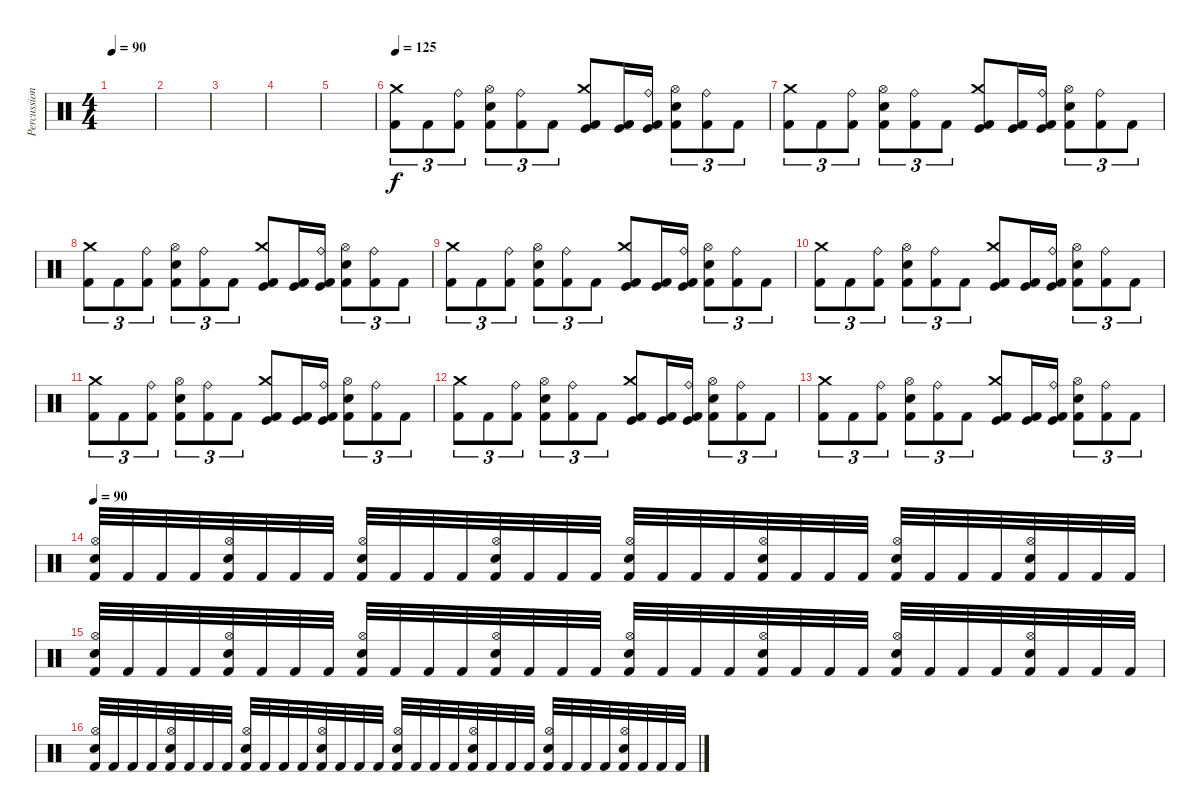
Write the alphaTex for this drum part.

\track ("Percussion" "Percussion") {instrument percussion}
\staff {score}
\articulation defaults
\ts (4 4)
\tempo 90
\clef neutral
\ks c
|
|
|
|
|
\tempo 125
("Kick (hit) 2" "Crash medium (hit)").8{tu (3 2)} "Kick (hit) 2".8{tu (3 2)} ("Kick (hit) 2" "Ride (bell)").8{tu (3 2)} ("Kick (hit) 2" "Snare (hit) 2" "Hi-Hat (open)").8{tu (3 2)} ("Kick (hit) 2" "Ride (bell)").8{tu (3 2)} "Kick (hit) 2".8{tu (3 2)} ("Kick (hit) 2" "Kick (hit)" "Crash medium (hit)").8 ("Kick (hit) 2" "Kick (hit)").16 ("Kick (hit) 2" "Kick (hit)" "Ride (bell)").16 ("Kick (hit) 2" "Snare (hit) 2" "Hi-Hat (open)").8{tu (3 2)} ("Kick (hit) 2" "Ride (bell)").8{tu (3 2)} "Kick (hit) 2".8{tu (3 2)} |
("Kick (hit) 2" "Crash medium (hit)").8{tu (3 2)} "Kick (hit) 2".8{tu (3 2)} ("Kick (hit) 2" "Ride (bell)").8{tu (3 2)} ("Kick (hit) 2" "Snare (hit) 2" "Hi-Hat (open)").8{tu (3 2)} ("Kick (hit) 2" "Ride (bell)").8{tu (3 2)} "Kick (hit) 2".8{tu (3 2)} ("Kick (hit) 2" "Kick (hit)" "Crash medium (hit)").8 ("Kick (hit) 2" "Kick (hit)").16 ("Kick (hit) 2" "Kick (hit)" "Ride (bell)").16 ("Kick (hit) 2" "Snare (hit) 2" "Hi-Hat (open)").8{tu (3 2)} ("Kick (hit) 2" "Ride (bell)").8{tu (3 2)} "Kick (hit) 2".8{tu (3 2)} |
("Kick (hit) 2" "Crash medium (hit)").8{tu (3 2)} "Kick (hit) 2".8{tu (3 2)} ("Kick (hit) 2" "Ride (bell)").8{tu (3 2)} ("Kick (hit) 2" "Snare (hit) 2" "Hi-Hat (open)").8{tu (3 2)} ("Kick (hit) 2" "Ride (bell)").8{tu (3 2)} "Kick (hit) 2".8{tu (3 2)} ("Kick (hit) 2" "Kick (hit)" "Crash medium (hit)").8 ("Kick (hit) 2" "Kick (hit)").16 ("Kick (hit) 2" "Kick (hit)" "Ride (bell)").16 ("Kick (hit) 2" "Snare (hit) 2" "Hi-Hat (open)").8{tu (3 2)} ("Kick (hit) 2" "Ride (bell)").8{tu (3 2)} "Kick (hit) 2".8{tu (3 2)} |
("Kick (hit) 2" "Crash medium (hit)").8{tu (3 2)} "Kick (hit) 2".8{tu (3 2)} ("Kick (hit) 2" "Ride (bell)").8{tu (3 2)} ("Kick (hit) 2" "Snare (hit) 2" "Hi-Hat (open)").8{tu (3 2)} ("Kick (hit) 2" "Ride (bell)").8{tu (3 2)} "Kick (hit) 2".8{tu (3 2)} ("Kick (hit) 2" "Kick (hit)" "Crash medium (hit)").8 ("Kick (hit) 2" "Kick (hit)").16 ("Kick (hit) 2" "Kick (hit)" "Ride (bell)").16 ("Kick (hit) 2" "Snare (hit) 2" "Hi-Hat (open)").8{tu (3 2)} ("Kick (hit) 2" "Ride (bell)").8{tu (3 2)} "Kick (hit) 2".8{tu (3 2)} |
("Kick (hit) 2" "Crash medium (hit)").8{tu (3 2)} "Kick (hit) 2".8{tu (3 2)} ("Kick (hit) 2" "Ride (bell)").8{tu (3 2)} ("Kick (hit) 2" "Snare (hit) 2" "Hi-Hat (open)").8{tu (3 2)} ("Kick (hit) 2" "Ride (bell)").8{tu (3 2)} "Kick (hit) 2".8{tu (3 2)} ("Kick (hit) 2" "Kick (hit)" "Crash medium (hit)").8 ("Kick (hit) 2" "Kick (hit)").16 ("Kick (hit) 2" "Kick (hit)" "Ride (bell)").16 ("Kick (hit) 2" "Snare (hit) 2" "Hi-Hat (open)").8{tu (3 2)} ("Kick (hit) 2" "Ride (bell)").8{tu (3 2)} "Kick (hit) 2".8{tu (3 2)} |
("Kick (hit) 2" "Crash medium (hit)").8{tu (3 2)} "Kick (hit) 2".8{tu (3 2)} ("Kick (hit) 2" "Ride (bell)").8{tu (3 2)} ("Kick (hit) 2" "Snare (hit) 2" "Hi-Hat (open)").8{tu (3 2)} ("Kick (hit) 2" "Ride (bell)").8{tu (3 2)} "Kick (hit) 2".8{tu (3 2)} ("Kick (hit) 2" "Kick (hit)" "Crash medium (hit)").8 ("Kick (hit) 2" "Kick (hit)").16 ("Kick (hit) 2" "Kick (hit)" "Ride (bell)").16 ("Kick (hit) 2" "Snare (hit) 2" "Hi-Hat (open)").8{tu (3 2)} ("Kick (hit) 2" "Ride (bell)").8{tu (3 2)} "Kick (hit) 2".8{tu (3 2)} |
("Kick (hit) 2" "Crash medium (hit)").8{tu (3 2)} "Kick (hit) 2".8{tu (3 2)} ("Kick (hit) 2" "Ride (bell)").8{tu (3 2)} ("Kick (hit) 2" "Snare (hit) 2" "Hi-Hat (open)").8{tu (3 2)} ("Kick (hit) 2" "Ride (bell)").8{tu (3 2)} "Kick (hit) 2".8{tu (3 2)} ("Kick (hit) 2" "Kick (hit)" "Crash medium (hit)").8 ("Kick (hit) 2" "Kick (hit)").16 ("Kick (hit) 2" "Kick (hit)" "Ride (bell)").16 ("Kick (hit) 2" "Snare (hit) 2" "Hi-Hat (open)").8{tu (3 2)} ("Kick (hit) 2" "Ride (bell)").8{tu (3 2)} "Kick (hit) 2".8{tu (3 2)} |
("Kick (hit) 2" "Crash medium (hit)").8{tu (3 2)} "Kick (hit) 2".8{tu (3 2)} ("Kick (hit) 2" "Ride (bell)").8{tu (3 2)} ("Kick (hit) 2" "Snare (hit) 2" "Hi-Hat (open)").8{tu (3 2)} ("Kick (hit) 2" "Ride (bell)").8{tu (3 2)} "Kick (hit) 2".8{tu (3 2)} ("Kick (hit) 2" "Kick (hit)" "Crash medium (hit)").8 ("Kick (hit) 2" "Kick (hit)").16 ("Kick (hit) 2" "Kick (hit)" "Ride (bell)").16 ("Kick (hit) 2" "Snare (hit) 2" "Hi-Hat (open)").8{tu (3 2)} ("Kick (hit) 2" "Ride (bell)").8{tu (3 2)} "Kick (hit) 2".8{tu (3 2)} |
\tempo 90
("Kick (hit) 2" "Hi-Hat (open)" "Electric Snare (hit)").32 "Kick (hit) 2".32 "Kick (hit) 2".32 "Kick (hit) 2".32 ("Kick (hit) 2" "Hi-Hat (open)" "Electric Snare (hit)").32 "Kick (hit) 2".32 "Kick (hit) 2".32 "Kick (hit) 2".32 ("Kick (hit) 2" "Hi-Hat (open)" "Electric Snare (hit)").32 "Kick (hit) 2".32 "Kick (hit) 2".32 "Kick (hit) 2".32 ("Kick (hit) 2" "Hi-Hat (open)" "Electric Snare (hit)").32 "Kick (hit) 2".32 "Kick (hit) 2".32 "Kick (hit) 2".32 ("Kick (hit) 2" "Hi-Hat (open)" "Electric Snare (hit)").32 "Kick (hit) 2".32 "Kick (hit) 2".32 "Kick (hit) 2".32 ("Kick (hit) 2" "Hi-Hat (open)" "Electric Snare (hit)").32 "Kick (hit) 2".32 "Kick (hit) 2".32 "Kick (hit) 2".32 ("Kick (hit) 2" "Hi-Hat (open)" "Electric Snare (hit)").32 "Kick (hit) 2".32 "Kick (hit) 2".32 "Kick (hit) 2".32 ("Kick (hit) 2" "Hi-Hat (open)" "Electric Snare (hit)").32 "Kick (hit) 2".32 "Kick (hit) 2".32 "Kick (hit) 2".32 |
("Kick (hit) 2" "Hi-Hat (open)" "Electric Snare (hit)").32 "Kick (hit) 2".32 "Kick (hit) 2".32 "Kick (hit) 2".32 ("Kick (hit) 2" "Hi-Hat (open)" "Electric Snare (hit)").32 "Kick (hit) 2".32 "Kick (hit) 2".32 "Kick (hit) 2".32 ("Kick (hit) 2" "Hi-Hat (open)" "Electric Snare (hit)").32 "Kick (hit) 2".32 "Kick (hit) 2".32 "Kick (hit) 2".32 ("Kick (hit) 2" "Hi-Hat (open)" "Electric Snare (hit)").32 "Kick (hit) 2".32 "Kick (hit) 2".32 "Kick (hit) 2".32 ("Kick (hit) 2" "Hi-Hat (open)" "Electric Snare (hit)").32 "Kick (hit) 2".32 "Kick (hit) 2".32 "Kick (hit) 2".32 ("Kick (hit) 2" "Hi-Hat (open)" "Electric Snare (hit)").32 "Kick (hit) 2".32 "Kick (hit) 2".32 "Kick (hit) 2".32 ("Kick (hit) 2" "Hi-Hat (open)" "Electric Snare (hit)").32 "Kick (hit) 2".32 "Kick (hit) 2".32 "Kick (hit) 2".32 ("Kick (hit) 2" "Hi-Hat (open)" "Electric Snare (hit)").32 "Kick (hit) 2".32 "Kick (hit) 2".32 "Kick (hit) 2".32 |
("Kick (hit) 2" "Hi-Hat (open)" "Electric Snare (hit)").32 "Kick (hit) 2".32 "Kick (hit) 2".32 "Kick (hit) 2".32 ("Kick (hit) 2" "Hi-Hat (open)" "Electric Snare (hit)").32 "Kick (hit) 2".32 "Kick (hit) 2".32 "Kick (hit) 2".32 ("Kick (hit) 2" "Hi-Hat (open)" "Electric Snare (hit)").32 "Kick (hit) 2".32 "Kick (hit) 2".32 "Kick (hit) 2".32 ("Kick (hit) 2" "Hi-Hat (open)" "Electric Snare (hit)").32 "Kick (hit) 2".32 "Kick (hit) 2".32 "Kick (hit) 2".32 ("Kick (hit) 2" "Hi-Hat (open)" "Electric Snare (hit)").32 "Kick (hit) 2".32 "Kick (hit) 2".32 "Kick (hit) 2".32 ("Kick (hit) 2" "Hi-Hat (open)" "Electric Snare (hit)").32 "Kick (hit) 2".32 "Kick (hit) 2".32 "Kick (hit) 2".32 ("Kick (hit) 2" "Hi-Hat (open)" "Electric Snare (hit)").32 "Kick (hit) 2".32 "Kick (hit) 2".32 "Kick (hit) 2".32 ("Kick (hit) 2" "Hi-Hat (open)" "Electric Snare (hit)").32 "Kick (hit) 2".32 "Kick (hit) 2".32 "Kick (hit) 2".32
